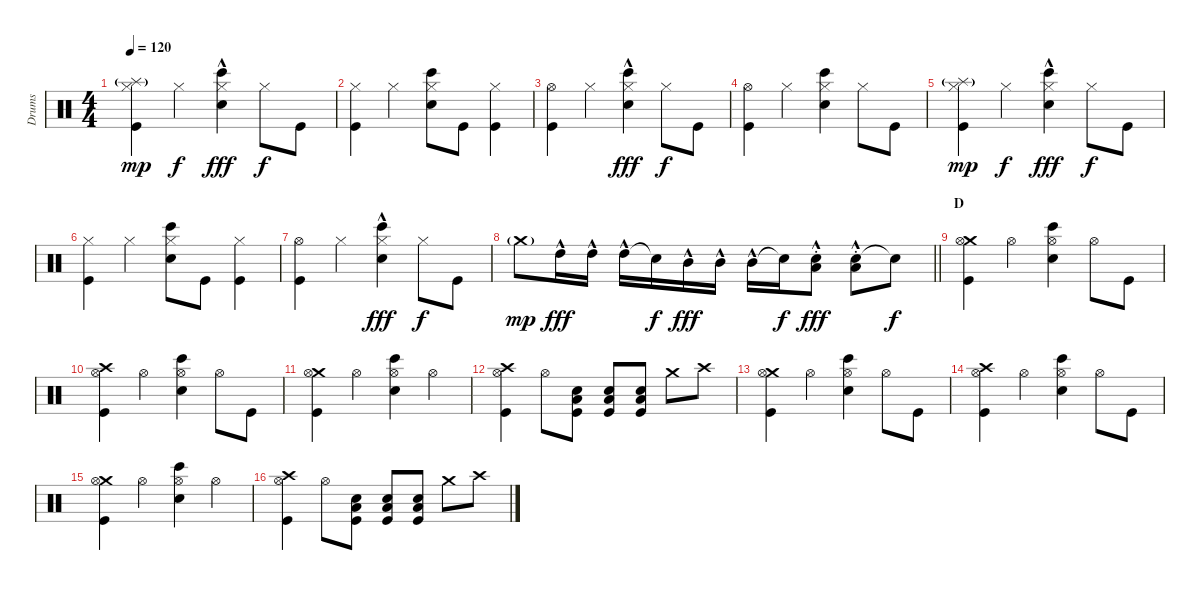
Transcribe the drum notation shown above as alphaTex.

\track ("Drums" "Drums") {instrument percussion}
\staff {score}
\articulation defaults
\ts (4 4)
\tempo 120
\clef neutral
\ks c
("Splash (hit)"{g} "Hi-Hat (closed)" "Kick (hit)").4{dy mp} "Hi-Hat (closed)".4{dy f} ("Hi-Hat (closed)" "Snare (hit) 2"{hac} "Bongo High (hit)").4{dy fff} "Hi-Hat (closed)".8{dy f} "Kick (hit)".8 |
("Hi-Hat (closed)" "Kick (hit)").4 "Hi-Hat (closed)".4 ("Hi-Hat (closed)" "Snare (hit) 2" "Bongo High (hit)").8 "Kick (hit)".8 ("Hi-Hat (closed)" "Kick (hit)").4 |
("Hi-Hat (open)" "Kick (hit)").4 "Hi-Hat (closed)".4 ("Hi-Hat (closed)" "Snare (hit) 2"{hac} "Bongo High (hit)").4{dy fff} "Hi-Hat (closed)".8{dy f} "Kick (hit)".8 |
("Hi-Hat (open)" "Kick (hit)").4 "Hi-Hat (closed)".4 ("Hi-Hat (closed)" "Snare (hit) 2" "Bongo High (hit)").4 "Hi-Hat (closed)".8 "Kick (hit)".8 |
("Splash (hit)"{g} "Hi-Hat (closed)" "Kick (hit)").4{dy mp} "Hi-Hat (closed)".4{dy f} ("Hi-Hat (closed)" "Snare (hit) 2"{hac} "Bongo High (hit)").4{dy fff} "Hi-Hat (closed)".8{dy f} "Kick (hit)".8 |
("Hi-Hat (closed)" "Kick (hit)").4 "Hi-Hat (closed)".4 ("Hi-Hat (closed)" "Snare (hit) 2" "Bongo High (hit)").8 "Kick (hit)".8 ("Hi-Hat (closed)" "Kick (hit)").4 |
("Hi-Hat (open)" "Kick (hit)").4 "Hi-Hat (closed)".4 ("Hi-Hat (closed)" "Snare (hit) 2"{hac} "Bongo High (hit)").4{dy fff} "Hi-Hat (closed)".8{dy f} "Kick (hit)".8 |
\barLineRight lightlight "Crash medium (hit)"{g}.8{dy mp} "High Tom (hit)"{hac}.16{dy fff} "High Tom (hit)"{hac}.16 "High Tom (hit)"{hac}.16 "Snare (hit)"{t}.16{dy f} "Mid Tom (hit)"{hac}.16{dy fff} "Mid Tom (hit)"{hac}.16 "Mid Tom (hit)"{hac}.16 "Snare (hit)"{t}.16{dy f}
("Snare (hit) 2"{hac st} "Low Floor Tom (hit)").8{dy fff} ("Snare (hit) 2"{hac st} "Low Floor Tom (hit)").8 "Snare (hit)"{t}.8{dy f} |
\section ("" "D")
("Crash medium (hit)" "Hi-Hat (open)" "Kick (hit)").4 "Hi-Hat (open)".4 ("Hi-Hat (open)" "Snare (hit) 2" "Bongo High (hit)").4 "Hi-Hat (open)".8 "Kick (hit)".8 |
("Crash high (hit)" "Hi-Hat (open)" "Kick (hit)").4 "Hi-Hat (open)".4 ("Hi-Hat (open)" "Snare (hit) 2" "Bongo High (hit)").4 "Hi-Hat (open)".8 "Kick (hit)".8 |
("Crash medium (hit)" "Hi-Hat (open)" "Kick (hit)").4 "Hi-Hat (open)".4 ("Hi-Hat (open)" "Snare (hit) 2" "Bongo High (hit)").4 "Hi-Hat (open)".4 |
("Crash high (hit)" "Hi-Hat (open)" "Kick (hit)").4 "Hi-Hat (open)".8 ("Snare (hit) 2" "Low Floor Tom (hit)" "Kick (hit)").8 ("Snare (hit) 2" "Low Floor Tom (hit)" "Kick (hit)").8 ("Snare (hit) 2" "Low Floor Tom (hit)" "Kick (hit)").8 "Crash medium (hit)".8 "Crash high (hit)".8 |
("Crash medium (hit)" "Hi-Hat (open)" "Kick (hit)").4 "Hi-Hat (open)".4 ("Hi-Hat (open)" "Snare (hit) 2" "Bongo High (hit)").4 "Hi-Hat (open)".8 "Kick (hit)".8 |
("Crash high (hit)" "Hi-Hat (open)" "Kick (hit)").4 "Hi-Hat (open)".4 ("Hi-Hat (open)" "Snare (hit) 2" "Bongo High (hit)").4 "Hi-Hat (open)".8 "Kick (hit)".8 |
("Crash medium (hit)" "Hi-Hat (open)" "Kick (hit)").4 "Hi-Hat (open)".4 ("Hi-Hat (open)" "Snare (hit) 2" "Bongo High (hit)").4 "Hi-Hat (open)".4 |
("Crash high (hit)" "Hi-Hat (open)" "Kick (hit)").4 "Hi-Hat (open)".8 ("Snare (hit) 2" "Low Floor Tom (hit)" "Kick (hit)").8 ("Snare (hit) 2" "Low Floor Tom (hit)" "Kick (hit)").8 ("Snare (hit) 2" "Low Floor Tom (hit)" "Kick (hit)").8 "Crash medium (hit)".8 "Crash high (hit)".8
